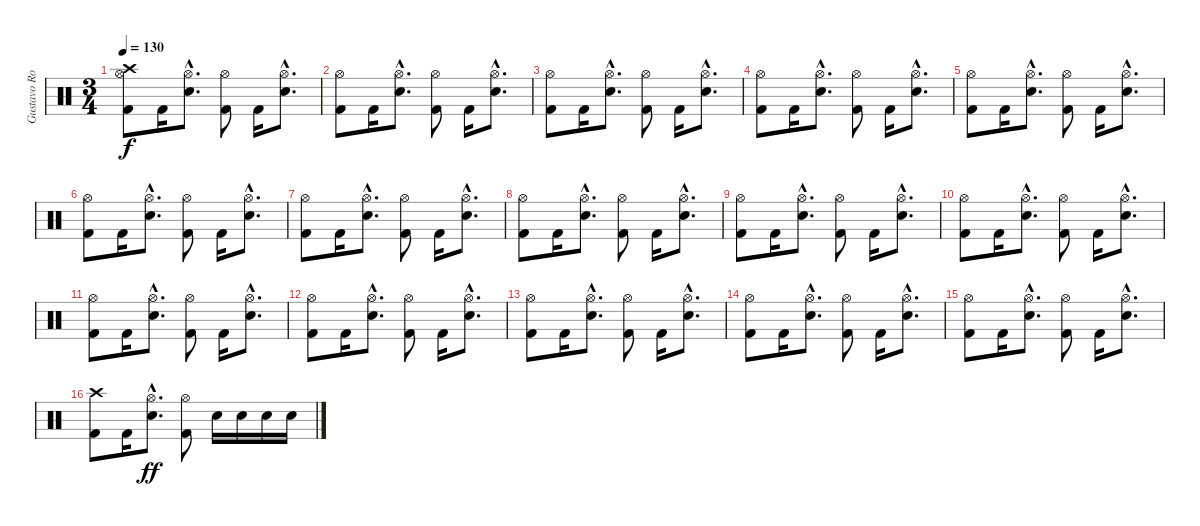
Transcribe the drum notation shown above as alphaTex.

\track ("Gustavo Rowek" "Gustavo Ro") {instrument percussion}
\staff {score}
\articulation defaults
\ts (3 4)
\tempo 130
\clef neutral
\ks c
("Hi-Hat (open)" "Crash high (hit)" "Kick (hit) 2").8{dy f} "Kick (hit) 2".16 ("Hi-Hat (open)"{hac} "Snare (hit) 2"{hac}).8{d} ("Hi-Hat (open)" "Kick (hit) 2").8 "Kick (hit) 2".16 ("Hi-Hat (open)"{hac} "Snare (hit) 2"{hac}).8{d} |
("Hi-Hat (open)" "Kick (hit) 2").8 "Kick (hit) 2".16 ("Hi-Hat (open)"{hac} "Snare (hit) 2"{hac}).8{d} ("Hi-Hat (open)" "Kick (hit) 2").8 "Kick (hit) 2".16 ("Hi-Hat (open)"{hac} "Snare (hit) 2"{hac}).8{d} |
("Hi-Hat (open)" "Kick (hit) 2").8 "Kick (hit) 2".16 ("Hi-Hat (open)"{hac} "Snare (hit) 2"{hac}).8{d} ("Hi-Hat (open)" "Kick (hit) 2").8 "Kick (hit) 2".16 ("Hi-Hat (open)"{hac} "Snare (hit) 2"{hac}).8{d} |
("Hi-Hat (open)" "Kick (hit) 2").8 "Kick (hit) 2".16 ("Hi-Hat (open)"{hac} "Snare (hit) 2"{hac}).8{d} ("Hi-Hat (open)" "Kick (hit) 2").8 "Kick (hit) 2".16 ("Hi-Hat (open)"{hac} "Snare (hit) 2"{hac}).8{d} |
("Hi-Hat (open)" "Kick (hit) 2").8 "Kick (hit) 2".16 ("Hi-Hat (open)"{hac} "Snare (hit) 2"{hac}).8{d} ("Hi-Hat (open)" "Kick (hit) 2").8 "Kick (hit) 2".16 ("Hi-Hat (open)"{hac} "Snare (hit) 2"{hac}).8{d} |
("Hi-Hat (open)" "Kick (hit) 2").8 "Kick (hit) 2".16 ("Hi-Hat (open)"{hac} "Snare (hit) 2"{hac}).8{d} ("Hi-Hat (open)" "Kick (hit) 2").8 "Kick (hit) 2".16 ("Hi-Hat (open)"{hac} "Snare (hit) 2"{hac}).8{d} |
("Hi-Hat (open)" "Kick (hit) 2").8 "Kick (hit) 2".16 ("Hi-Hat (open)"{hac} "Snare (hit) 2"{hac}).8{d} ("Hi-Hat (open)" "Kick (hit) 2").8 "Kick (hit) 2".16 ("Hi-Hat (open)"{hac} "Snare (hit) 2"{hac}).8{d} |
("Hi-Hat (open)" "Kick (hit) 2").8 "Kick (hit) 2".16 ("Hi-Hat (open)"{hac} "Snare (hit) 2"{hac}).8{d} ("Hi-Hat (open)" "Kick (hit) 2").8 "Kick (hit) 2".16 ("Hi-Hat (open)"{hac} "Snare (hit) 2"{hac}).8{d} |
("Hi-Hat (open)" "Kick (hit) 2").8 "Kick (hit) 2".16 ("Hi-Hat (open)"{hac} "Snare (hit) 2"{hac}).8{d} ("Hi-Hat (open)" "Kick (hit) 2").8 "Kick (hit) 2".16 ("Hi-Hat (open)"{hac} "Snare (hit) 2"{hac}).8{d} |
("Hi-Hat (open)" "Kick (hit) 2").8 "Kick (hit) 2".16 ("Hi-Hat (open)"{hac} "Snare (hit) 2"{hac}).8{d} ("Hi-Hat (open)" "Kick (hit) 2").8 "Kick (hit) 2".16 ("Hi-Hat (open)"{hac} "Snare (hit) 2"{hac}).8{d} |
("Hi-Hat (open)" "Kick (hit) 2").8 "Kick (hit) 2".16 ("Hi-Hat (open)"{hac} "Snare (hit) 2"{hac}).8{d} ("Hi-Hat (open)" "Kick (hit) 2").8 "Kick (hit) 2".16 ("Hi-Hat (open)"{hac} "Snare (hit) 2"{hac}).8{d} |
("Hi-Hat (open)" "Kick (hit) 2").8 "Kick (hit) 2".16 ("Hi-Hat (open)"{hac} "Snare (hit) 2"{hac}).8{d} ("Hi-Hat (open)" "Kick (hit) 2").8 "Kick (hit) 2".16 ("Hi-Hat (open)"{hac} "Snare (hit) 2"{hac}).8{d} |
("Hi-Hat (open)" "Kick (hit) 2").8 "Kick (hit) 2".16 ("Hi-Hat (open)"{hac} "Snare (hit) 2"{hac}).8{d} ("Hi-Hat (open)" "Kick (hit) 2").8 "Kick (hit) 2".16 ("Hi-Hat (open)"{hac} "Snare (hit) 2"{hac}).8{d} |
("Hi-Hat (open)" "Kick (hit) 2").8 "Kick (hit) 2".16 ("Hi-Hat (open)"{hac} "Snare (hit) 2"{hac}).8{d} ("Hi-Hat (open)" "Kick (hit) 2").8 "Kick (hit) 2".16 ("Hi-Hat (open)"{hac} "Snare (hit) 2"{hac}).8{d} |
("Hi-Hat (open)" "Kick (hit) 2").8 "Kick (hit) 2".16 ("Hi-Hat (open)"{hac} "Snare (hit) 2"{hac}).8{d} ("Hi-Hat (open)" "Kick (hit) 2").8 "Kick (hit) 2".16 ("Hi-Hat (open)"{hac} "Snare (hit) 2"{hac}).8{d} |
("Crash high (hit)" "Kick (hit) 2").8 "Kick (hit) 2".16 ("Hi-Hat (open)"{hac} "Snare (hit) 2"{hac}).8{d dy ff} ("Hi-Hat (open)" "Kick (hit) 2").8 "Electric Snare (hit)".16 "Electric Snare (hit)".16 "Electric Snare (hit)".16 "Electric Snare (hit)".16
